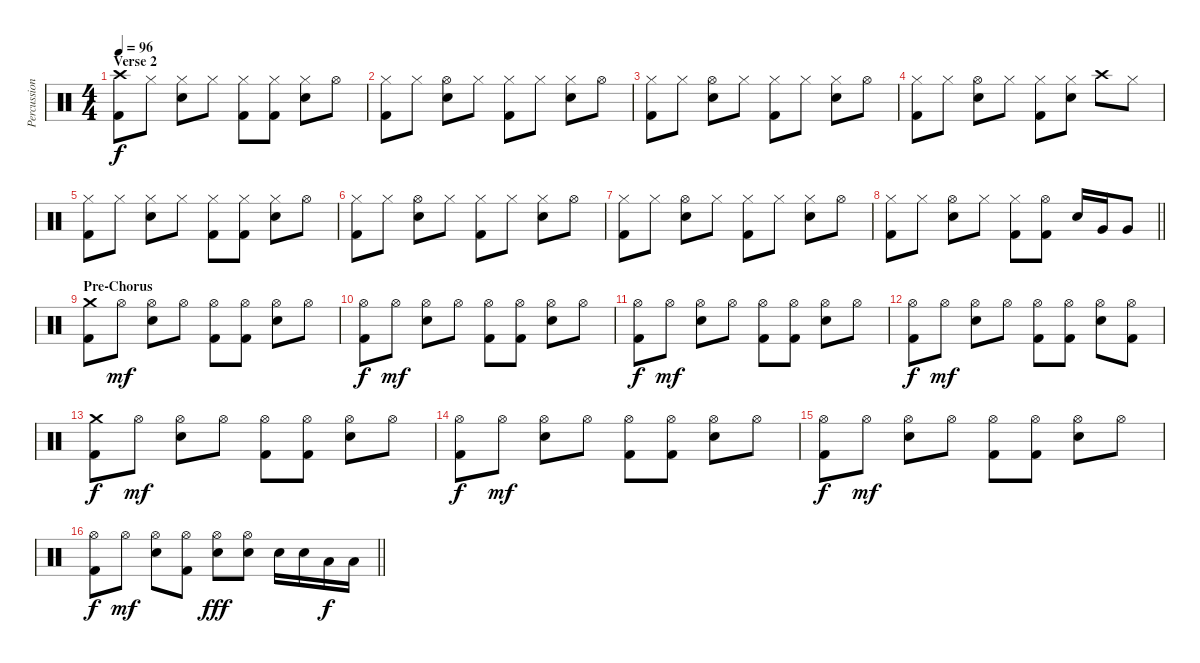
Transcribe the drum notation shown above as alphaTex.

\track ("Percussion" "Percussion") {instrument percussion}
\staff {score}
\articulation defaults
\ts (4 4)
\section ("" "Verse 2")
\tempo 96
\clef neutral
\ks c
("Crash high (hit)" "Kick (hit) 2").8{dy f} "Hi-Hat (closed)".8 ("Hi-Hat (closed)" "Electric Snare (hit)").8 "Hi-Hat (closed)".8 ("Hi-Hat (closed)" "Kick (hit) 2").8 ("Hi-Hat (closed)" "Kick (hit) 2").8 ("Hi-Hat (closed)" "Electric Snare (hit)").8 "Hi-Hat (open)".8 |
("Hi-Hat (closed)" "Kick (hit) 2").8 "Hi-Hat (closed)".8 ("Hi-Hat (open)" "Electric Snare (hit)").8 "Hi-Hat (closed)".8 ("Hi-Hat (closed)" "Kick (hit) 2").8 "Hi-Hat (closed)".8 ("Hi-Hat (closed)" "Electric Snare (hit)").8 "Hi-Hat (open)".8 |
("Hi-Hat (closed)" "Kick (hit) 2").8 "Hi-Hat (closed)".8 ("Hi-Hat (open)" "Electric Snare (hit)").8 "Hi-Hat (closed)".8 ("Hi-Hat (closed)" "Kick (hit) 2").8 "Hi-Hat (closed)".8 ("Hi-Hat (closed)" "Electric Snare (hit)").8 "Hi-Hat (open)".8 |
("Hi-Hat (closed)" "Kick (hit) 2").8 "Hi-Hat (closed)".8 ("Hi-Hat (open)" "Electric Snare (hit)").8 "Hi-Hat (closed)".8 ("Hi-Hat (closed)" "Kick (hit) 2").8 ("Hi-Hat (closed)" "Electric Snare (hit)").8 "Crash high (hit)".8 "Hi-Hat (closed)".8 |
("Hi-Hat (closed)" "Kick (hit) 2").8 "Hi-Hat (closed)".8 ("Hi-Hat (closed)" "Electric Snare (hit)").8 "Hi-Hat (closed)".8 ("Hi-Hat (closed)" "Kick (hit) 2").8 ("Hi-Hat (closed)" "Kick (hit) 2").8 ("Hi-Hat (closed)" "Electric Snare (hit)").8 "Hi-Hat (open)".8 |
("Hi-Hat (closed)" "Kick (hit) 2").8 "Hi-Hat (closed)".8 ("Hi-Hat (open)" "Electric Snare (hit)").8 "Hi-Hat (closed)".8 ("Hi-Hat (closed)" "Kick (hit) 2").8 "Hi-Hat (closed)".8 ("Hi-Hat (closed)" "Electric Snare (hit)").8 "Hi-Hat (open)".8 |
("Hi-Hat (closed)" "Kick (hit) 2").8 "Hi-Hat (closed)".8 ("Hi-Hat (open)" "Electric Snare (hit)").8 "Hi-Hat (closed)".8 ("Hi-Hat (closed)" "Kick (hit) 2").8 "Hi-Hat (closed)".8 ("Hi-Hat (closed)" "Electric Snare (hit)").8 "Hi-Hat (open)".8 |
\barLineRight lightlight
("Hi-Hat (closed)" "Kick (hit) 2").8 "Hi-Hat (closed)".8 ("Hi-Hat (open)" "Electric Snare (hit)").8 "Hi-Hat (closed)".8 ("Hi-Hat (closed)" "Kick (hit) 2").8 ("Hi-Hat (open)" "Kick (hit) 2").8 "Electric Snare (hit)".16 "Very Low Tom (hit)".16 "Very Low Tom (hit)".8 |
\section ("" "Pre-Chorus")
("Crash medium (hit)" "Kick (hit) 2").8 "Hi-Hat (open)".8{dy mf} ("Hi-Hat (open)" "Electric Snare (hit)").8 "Hi-Hat (open)".8 ("Hi-Hat (open)" "Kick (hit) 2").8 ("Hi-Hat (open)" "Kick (hit) 2").8 ("Hi-Hat (open)" "Electric Snare (hit)").8 "Hi-Hat (open)".8 |
("Hi-Hat (open)" "Kick (hit) 2").8{dy f} "Hi-Hat (open)".8{dy mf} ("Hi-Hat (open)" "Electric Snare (hit)").8 "Hi-Hat (open)".8 ("Hi-Hat (open)" "Kick (hit) 2").8 ("Hi-Hat (open)" "Kick (hit) 2").8 ("Hi-Hat (open)" "Electric Snare (hit)").8 "Hi-Hat (open)".8 |
("Hi-Hat (open)" "Kick (hit) 2").8{dy f} "Hi-Hat (open)".8{dy mf} ("Hi-Hat (open)" "Electric Snare (hit)").8 "Hi-Hat (open)".8 ("Hi-Hat (open)" "Kick (hit) 2").8 ("Hi-Hat (open)" "Kick (hit) 2").8 ("Hi-Hat (open)" "Electric Snare (hit)").8 "Hi-Hat (open)".8 |
("Hi-Hat (open)" "Kick (hit) 2").8{dy f} "Hi-Hat (open)".8{dy mf} ("Hi-Hat (open)" "Electric Snare (hit)").8 "Hi-Hat (open)".8 ("Hi-Hat (open)" "Kick (hit) 2").8 ("Hi-Hat (open)" "Kick (hit) 2").8 ("Hi-Hat (open)" "Electric Snare (hit)").8 ("Hi-Hat (open)" "Kick (hit) 2").8 |
("Crash medium (hit)" "Kick (hit) 2").8{dy f} "Hi-Hat (open)".8{dy mf} ("Hi-Hat (open)" "Electric Snare (hit)").8 "Hi-Hat (open)".8 ("Hi-Hat (open)" "Kick (hit) 2").8 ("Hi-Hat (open)" "Kick (hit) 2").8 ("Hi-Hat (open)" "Electric Snare (hit)").8 "Hi-Hat (open)".8 |
("Hi-Hat (open)" "Kick (hit) 2").8{dy f} "Hi-Hat (open)".8{dy mf} ("Hi-Hat (open)" "Electric Snare (hit)").8 "Hi-Hat (open)".8 ("Hi-Hat (open)" "Kick (hit) 2").8 ("Hi-Hat (open)" "Kick (hit) 2").8 ("Hi-Hat (open)" "Electric Snare (hit)").8 "Hi-Hat (open)".8 |
("Hi-Hat (open)" "Kick (hit) 2").8{dy f} "Hi-Hat (open)".8{dy mf} ("Hi-Hat (open)" "Electric Snare (hit)").8 "Hi-Hat (open)".8 ("Hi-Hat (open)" "Kick (hit) 2").8 ("Hi-Hat (open)" "Kick (hit) 2").8 ("Hi-Hat (open)" "Electric Snare (hit)").8 "Hi-Hat (open)".8 |
\barLineRight lightlight
("Hi-Hat (open)" "Kick (hit) 2").8{dy f} "Hi-Hat (open)".8{dy mf} ("Hi-Hat (open)" "Electric Snare (hit)").8 ("Hi-Hat (open)" "Kick (hit) 2").8 ("Hi-Hat (open)" "Electric Snare (hit)").8{dy fff} ("Hi-Hat (open)" "Electric Snare (hit)").8 "Electric Snare (hit)".16 "Electric Snare (hit)".16 "Low Tom (hit)".16{dy f} "Low Tom (hit)".16
